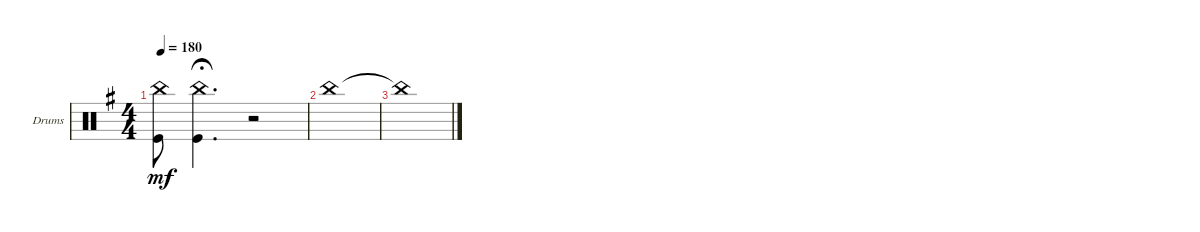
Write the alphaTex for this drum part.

\defaultSystemsLayout 4
\bracketExtendMode groupsimilarinstruments
\firstSystemTrackNameOrientation horizontal
\otherSystemsTrackNameOrientation horizontal
\track ("Drumkit" "Drums") {instrument percussion}
\staff {score}
\articulation defaults
\ts (4 4)
\tempo 180
\clef neutral
\ks g
("Kick (hit)" "China (hit)").8{dy mf} ("Kick (hit)" "China (hit)").4{d fermata (medium 0.5)} r.2 |
"China (hit)".1 |
"China (hit)"{t}.1
